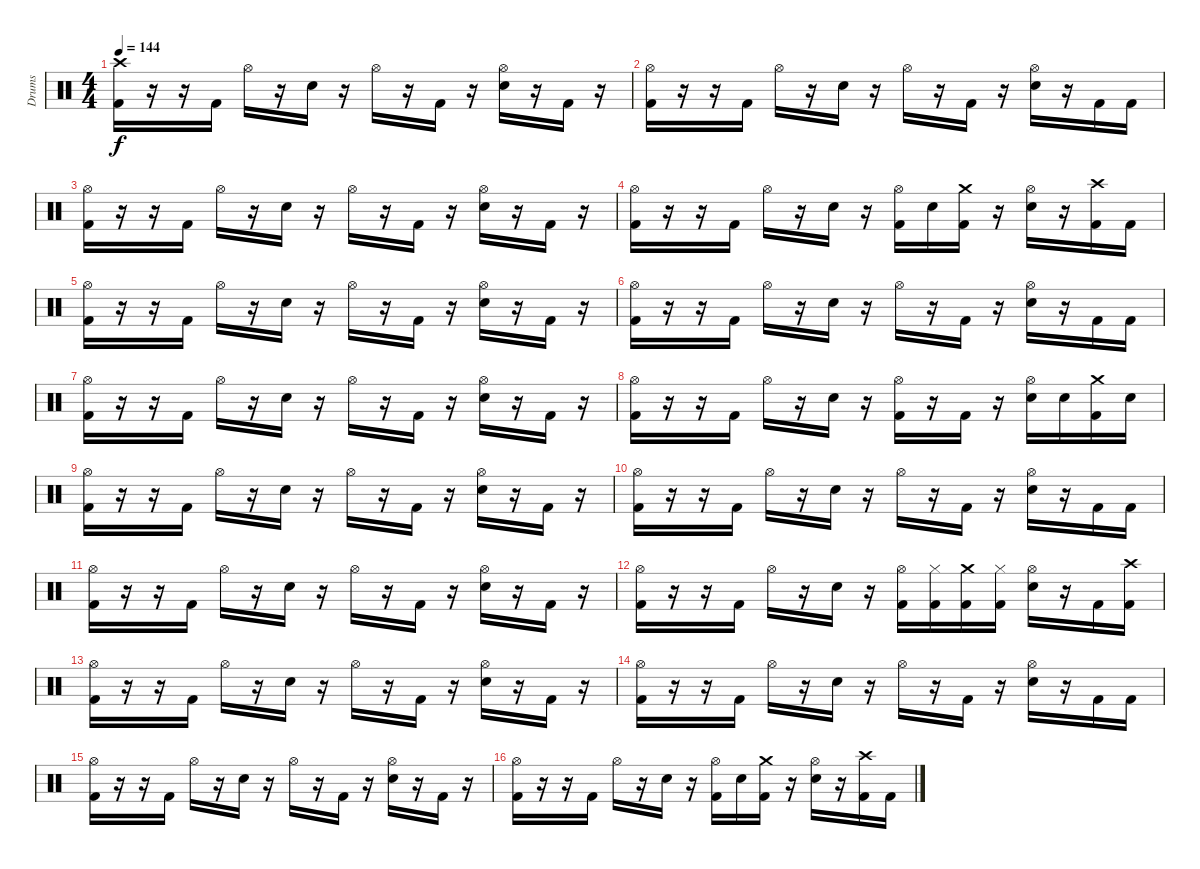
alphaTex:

\track ("Drums" "Drums") {instrument percussion}
\staff {score}
\articulation defaults
\ts (4 4)
\tempo 144
\clef neutral
\ks c
("Crash high (hit)" "Kick (hit) 2").16{dy f} r.16 r.16 "Kick (hit) 2".16 "Hi-Hat (open)".16 r.16 "Snare (hit) 2".16 r.16 "Hi-Hat (open)".16 r.16 "Kick (hit) 2".16 r.16 ("Hi-Hat (open)" "Snare (hit) 2").16 r.16 "Kick (hit) 2".16 r.16 |
("Hi-Hat (open)" "Kick (hit) 2").16 r.16 r.16 "Kick (hit) 2".16 "Hi-Hat (open)".16 r.16 "Snare (hit) 2".16 r.16 "Hi-Hat (open)".16 r.16 "Kick (hit) 2".16 r.16 ("Hi-Hat (open)" "Snare (hit) 2").16 r.16 "Kick (hit) 2".16 "Kick (hit) 2".16 |
("Hi-Hat (open)" "Kick (hit) 2").16 r.16 r.16 "Kick (hit) 2".16 "Hi-Hat (open)".16 r.16 "Snare (hit) 2".16 r.16 "Hi-Hat (open)".16 r.16 "Kick (hit) 2".16 r.16 ("Hi-Hat (open)" "Snare (hit) 2").16 r.16 "Kick (hit) 2".16 r.16 |
("Hi-Hat (open)" "Kick (hit) 2").16 r.16 r.16 "Kick (hit) 2".16 "Hi-Hat (open)".16 r.16 "Snare (hit) 2".16 r.16 ("Hi-Hat (open)" "Kick (hit) 2").16 "Snare (hit) 2".16 ("Crash medium (hit)" "Kick (hit) 2").16 r.16 ("Hi-Hat (open)" "Snare (hit) 2").16 r.16 ("Crash high (hit)" "Kick (hit) 2").16 "Kick (hit) 2".16 |
("Hi-Hat (open)" "Kick (hit) 2").16 r.16 r.16 "Kick (hit) 2".16 "Hi-Hat (open)".16 r.16 "Snare (hit) 2".16 r.16 "Hi-Hat (open)".16 r.16 "Kick (hit) 2".16 r.16 ("Hi-Hat (open)" "Snare (hit) 2").16 r.16 "Kick (hit) 2".16 r.16 |
("Hi-Hat (open)" "Kick (hit) 2").16 r.16 r.16 "Kick (hit) 2".16 "Hi-Hat (open)".16 r.16 "Snare (hit) 2".16 r.16 "Hi-Hat (open)".16 r.16 "Kick (hit) 2".16 r.16 ("Hi-Hat (open)" "Snare (hit) 2").16 r.16 "Kick (hit) 2".16 "Kick (hit) 2".16 |
("Hi-Hat (open)" "Kick (hit) 2").16 r.16 r.16 "Kick (hit) 2".16 "Hi-Hat (open)".16 r.16 "Snare (hit) 2".16 r.16 "Hi-Hat (open)".16 r.16 "Kick (hit) 2".16 r.16 ("Hi-Hat (open)" "Snare (hit) 2").16 r.16 "Kick (hit) 2".16 r.16 |
("Hi-Hat (open)" "Kick (hit) 2").16 r.16 r.16 "Kick (hit) 2".16 "Hi-Hat (open)".16 r.16 "Snare (hit) 2".16 r.16 ("Hi-Hat (open)" "Kick (hit) 2").16 r.16 "Kick (hit) 2".16 r.16 ("Hi-Hat (open)" "Snare (hit) 2").16 "Snare (hit) 2".16 ("Crash medium (hit)" "Kick (hit) 2").16 "Snare (hit) 2".16 |
("Hi-Hat (open)" "Kick (hit) 2").16 r.16 r.16 "Kick (hit) 2".16 "Hi-Hat (open)".16 r.16 "Snare (hit) 2".16 r.16 "Hi-Hat (open)".16 r.16 "Kick (hit) 2".16 r.16 ("Hi-Hat (open)" "Snare (hit) 2").16 r.16 "Kick (hit) 2".16 r.16 |
("Hi-Hat (open)" "Kick (hit) 2").16 r.16 r.16 "Kick (hit) 2".16 "Hi-Hat (open)".16 r.16 "Snare (hit) 2".16 r.16 "Hi-Hat (open)".16 r.16 "Kick (hit) 2".16 r.16 ("Hi-Hat (open)" "Snare (hit) 2").16 r.16 "Kick (hit) 2".16 "Kick (hit) 2".16 |
("Hi-Hat (open)" "Kick (hit) 2").16 r.16 r.16 "Kick (hit) 2".16 "Hi-Hat (open)".16 r.16 "Snare (hit) 2".16 r.16 "Hi-Hat (open)".16 r.16 "Kick (hit) 2".16 r.16 ("Hi-Hat (open)" "Snare (hit) 2").16 r.16 "Kick (hit) 2".16 r.16 |
("Hi-Hat (open)" "Kick (hit) 2").16 r.16 r.16 "Kick (hit) 2".16 "Hi-Hat (open)".16 r.16 "Snare (hit) 2".16 r.16 ("Hi-Hat (open)" "Kick (hit) 2").16 ("Hi-Hat (closed)" "Kick (hit) 2").16 ("Crash medium (hit)" "Kick (hit) 2").16 ("Hi-Hat (closed)" "Kick (hit) 2").16 ("Hi-Hat (open)" "Snare (hit) 2").16 r.16 "Kick (hit) 2".16 ("Crash high (hit)" "Kick (hit) 2").16 |
("Hi-Hat (open)" "Kick (hit) 2").16 r.16 r.16 "Kick (hit) 2".16 "Hi-Hat (open)".16 r.16 "Snare (hit) 2".16 r.16 "Hi-Hat (open)".16 r.16 "Kick (hit) 2".16 r.16 ("Hi-Hat (open)" "Snare (hit) 2").16 r.16 "Kick (hit) 2".16 r.16 |
("Hi-Hat (open)" "Kick (hit) 2").16 r.16 r.16 "Kick (hit) 2".16 "Hi-Hat (open)".16 r.16 "Snare (hit) 2".16 r.16 "Hi-Hat (open)".16 r.16 "Kick (hit) 2".16 r.16 ("Hi-Hat (open)" "Snare (hit) 2").16 r.16 "Kick (hit) 2".16 "Kick (hit) 2".16 |
("Hi-Hat (open)" "Kick (hit) 2").16 r.16 r.16 "Kick (hit) 2".16 "Hi-Hat (open)".16 r.16 "Snare (hit) 2".16 r.16 "Hi-Hat (open)".16 r.16 "Kick (hit) 2".16 r.16 ("Hi-Hat (open)" "Snare (hit) 2").16 r.16 "Kick (hit) 2".16 r.16 |
("Hi-Hat (open)" "Kick (hit) 2").16 r.16 r.16 "Kick (hit) 2".16 "Hi-Hat (open)".16 r.16 "Snare (hit) 2".16 r.16 ("Hi-Hat (open)" "Kick (hit) 2").16 "Snare (hit) 2".16 ("Crash medium (hit)" "Kick (hit) 2").16 r.16 ("Hi-Hat (open)" "Snare (hit) 2").16 r.16 ("Crash high (hit)" "Kick (hit) 2").16 "Kick (hit) 2".16
